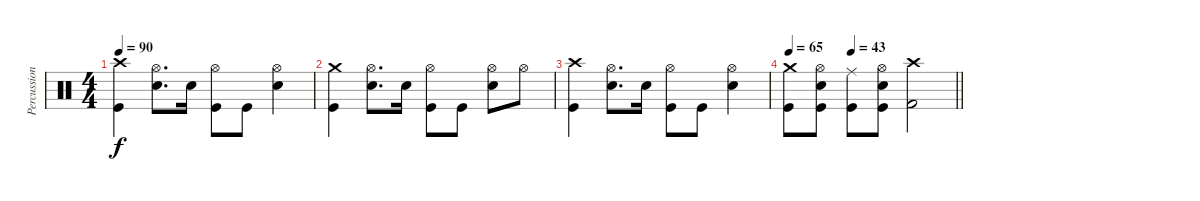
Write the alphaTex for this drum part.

\track ("Percussion" "Percussion") {instrument percussion}
\staff {score}
\articulation defaults
\ts (4 4)
\tempo 90
\clef neutral
\ks c
("Crash high (hit)" "Kick (hit)").4{dy f} ("Electric Snare (hit)" "Hi-Hat (open)").8{d} "Electric Snare (hit)".16 ("Hi-Hat (open)" "Kick (hit)").8 "Kick (hit)".8 ("Electric Snare (hit)" "Hi-Hat (open)").4 |
("Crash medium (hit)" "Kick (hit)").4 ("Electric Snare (hit)" "Hi-Hat (open)").8{d} "Electric Snare (hit)".16 ("Hi-Hat (open)" "Kick (hit)").8 "Kick (hit)".8 ("Electric Snare (hit)" "Hi-Hat (open)").8 "Hi-Hat (open)".8 |
("Crash high (hit)" "Kick (hit)").4 ("Electric Snare (hit)" "Hi-Hat (open)").8{d} "Electric Snare (hit)".16 ("Hi-Hat (open)" "Kick (hit)").8 "Kick (hit)".8 ("Electric Snare (hit)" "Hi-Hat (open)").4 |
\tempo 65
\tempo (43 0.375)
\barLineRight lightlight
("Crash medium (hit)" "Kick (hit)").8 ("Electric Snare (hit)" "Hi-Hat (open)" "Kick (hit)").8 ("Ride (middle)" "Kick (hit)").8 ("Electric Snare (hit)" "Hi-Hat (open)" "Kick (hit)").8 ("Crash high (hit)" "Kick (hit) 2").2
